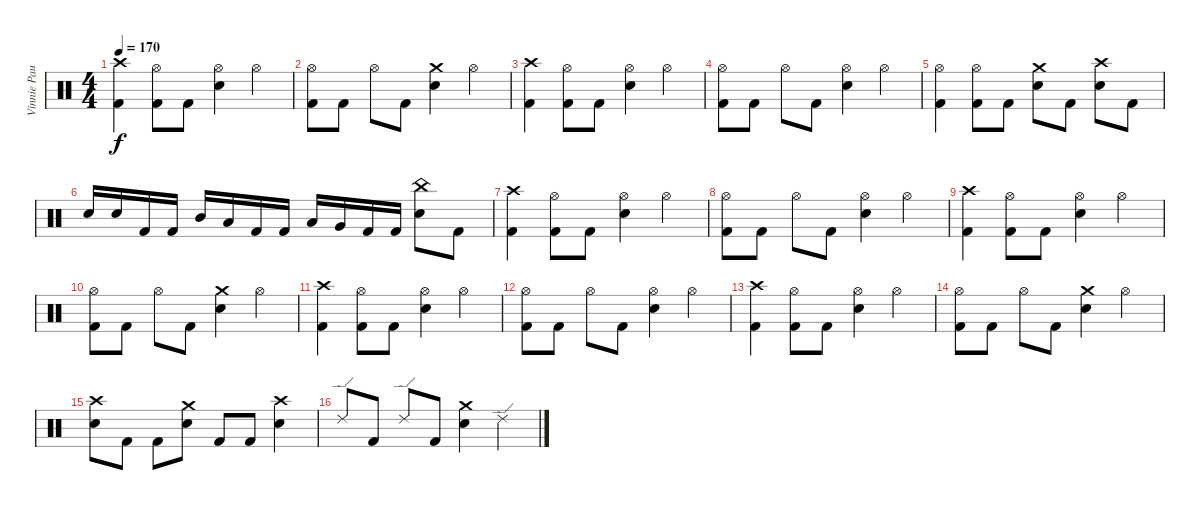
\track ("Vinnie Paul (Drums)" "Vinnie Pau") {instrument percussion}
\staff {score}
\articulation defaults
\ts (4 4)
\tempo 170
\clef neutral
\ks c
("Crash high (hit)" "Kick (hit) 2").4{dy f} ("Hi-Hat (open)" "Kick (hit) 2").8 "Kick (hit) 2".8 ("Hi-Hat (open)" "Snare (hit) 2").4 "Hi-Hat (open)".4 |
("Hi-Hat (open)" "Kick (hit) 2").8 "Kick (hit) 2".8 "Hi-Hat (open)".8 "Kick (hit) 2".8 ("Crash medium (hit)" "Snare (hit) 2").4 "Hi-Hat (open)".4 |
("Crash high (hit)" "Kick (hit) 2").4 ("Hi-Hat (open)" "Kick (hit) 2").8 "Kick (hit) 2".8 ("Hi-Hat (open)" "Snare (hit) 2").4 "Hi-Hat (open)".4 |
("Hi-Hat (open)" "Kick (hit) 2").8 "Kick (hit) 2".8 "Hi-Hat (open)".8 "Kick (hit) 2".8 ("Hi-Hat (open)" "Snare (hit) 2").4 "Hi-Hat (open)".4 |
("Hi-Hat (open)" "Kick (hit) 2").4 ("Hi-Hat (open)" "Kick (hit) 2").8 "Kick (hit) 2".8 ("Crash medium (hit)" "Snare (hit) 2").8 "Kick (hit) 2".8 ("Crash high (hit)" "Snare (hit) 2").8 "Kick (hit) 2".8 |
"Snare (hit) 2".16 "Snare (hit) 2".16 "Kick (hit) 2".16 "Kick (hit) 2".16 "Mid Tom (hit)".16 "Low Tom (hit)".16 "Kick (hit) 2".16 "Kick (hit) 2".16 "Low Tom (hit)".16 "Very Low Tom (hit)".16 "Kick (hit) 2".16 "Kick (hit) 2".16 ("China (hit)" "Snare (hit) 2").8 "Kick (hit) 2".8 |
("Crash high (hit)" "Kick (hit) 2").4 ("Hi-Hat (open)" "Kick (hit) 2").8 "Kick (hit) 2".8 ("Hi-Hat (open)" "Snare (hit) 2").4 "Hi-Hat (open)".4 |
("Hi-Hat (open)" "Kick (hit) 2").8 "Kick (hit) 2".8 "Hi-Hat (open)".8 "Kick (hit) 2".8 ("Hi-Hat (open)" "Snare (hit) 2").4 "Hi-Hat (open)".4 |
("Crash high (hit)" "Kick (hit) 2").4 ("Hi-Hat (open)" "Kick (hit) 2").8 "Kick (hit) 2".8 ("Hi-Hat (open)" "Snare (hit) 2").4 "Hi-Hat (open)".4 |
("Hi-Hat (open)" "Kick (hit) 2").8 "Kick (hit) 2".8 "Hi-Hat (open)".8 "Kick (hit) 2".8 ("Crash medium (hit)" "Snare (hit) 2").4 "Hi-Hat (open)".4 |
("Crash high (hit)" "Kick (hit) 2").4 ("Hi-Hat (open)" "Kick (hit) 2").8 "Kick (hit) 2".8 ("Hi-Hat (open)" "Snare (hit) 2").4 "Hi-Hat (open)".4 |
("Hi-Hat (open)" "Kick (hit) 2").8 "Kick (hit) 2".8 "Hi-Hat (open)".8 "Kick (hit) 2".8 ("Hi-Hat (open)" "Snare (hit) 2").4 "Hi-Hat (open)".4 |
("Crash high (hit)" "Kick (hit) 2").4 ("Hi-Hat (open)" "Kick (hit) 2").8 "Kick (hit) 2".8 ("Hi-Hat (open)" "Snare (hit) 2").4 "Hi-Hat (open)".4 |
("Hi-Hat (open)" "Kick (hit) 2").8 "Kick (hit) 2".8 "Hi-Hat (open)".8 "Kick (hit) 2".8 ("Crash medium (hit)" "Snare (hit) 2").4 "Hi-Hat (open)".4 |
("Crash high (hit)" "Snare (hit) 2").8 "Kick (hit) 2".8 "Kick (hit) 2".8 ("Crash medium (hit)" "Snare (hit) 2").8 "Kick (hit) 2".8 "Kick (hit) 2".8 ("Crash high (hit)" "Snare (hit) 2").4 |
"Ride (edge) 2".8 "Kick (hit) 2".8 "Ride (edge) 2".8 "Kick (hit) 2".8 ("Crash medium (hit)" "Snare (hit) 2").4 "Ride (edge) 2".4
